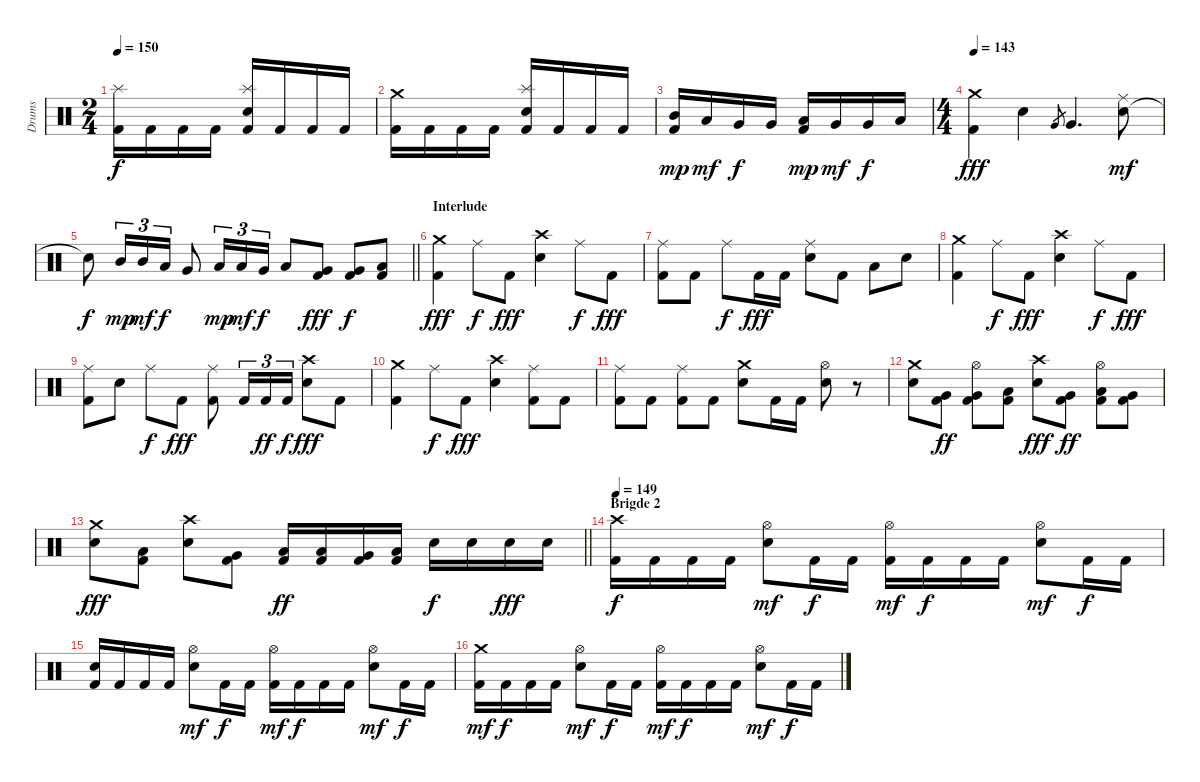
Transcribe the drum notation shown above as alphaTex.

\track ("Drums" "Drums") {instrument percussion}
\staff
\articulation defaults
\ts (2 4)
\tempo 150
\clef neutral
\ks c
("Kick (hit) 2" "Splash (hit)").16{dy f} "Kick (hit) 2".16 "Kick (hit) 2".16 "Kick (hit) 2".16 ("Kick (hit) 2" "Electric Snare (hit)" "Splash (hit)").16 "Kick (hit) 2".16 "Kick (hit) 2".16 "Kick (hit) 2".16 |
("Kick (hit) 2" "Crash medium (hit)").16 "Kick (hit) 2".16 "Kick (hit) 2".16 "Kick (hit) 2".16 ("Kick (hit) 2" "Electric Snare (hit)" "Splash (hit)").16 "Kick (hit) 2".16 "Kick (hit) 2".16 "Kick (hit) 2".16 |
("Kick (hit) 2" "Mid Tom (hit)").16{dy mp} "Low Tom (hit)".16{dy mf} "Very Low Tom (hit)".16{dy f} "Very Low Tom (hit)".16 ("Kick (hit) 2" "Low Tom (hit)").16{dy mp} "Very Low Tom (hit)".16{dy mf} "Very Low Tom (hit)".16{dy f} "Low Floor Tom (hit)".16 |
\ts (4 4)
\tempo 143
("Kick (hit) 2" "Crash medium (hit)").4{dy fff} "Electric Snare (hit)".4 "Very Low Tom (hit)".8{gr} "Very Low Tom (hit)".4{d} ("Electric Snare (hit)" "Ride (middle)").8{dy mf} |
\barLineRight lightlight "Snare (hit)"{t}.8{dy f} "Mid Tom (hit)".16{tu (3 2) dy mp} "Mid Tom (hit)".16{tu (3 2) dy mf} "Low Tom (hit)".16{tu (3 2) dy f} "Very Low Tom (hit)".8 "Low Tom (hit)".16{tu (3 2) dy mp} "Low Tom (hit)".16{tu (3 2) dy mf} "Very Low Tom (hit)".16{tu (3 2) dy f} "Low Floor Tom (hit)".8
("Kick (hit) 2" "Very Low Tom (hit)").8{dy fff} ("Kick (hit) 2" "Very Low Tom (hit)").8{dy f} ("Kick (hit) 2" "Low Floor Tom (hit)").8 |
\section ("" "Interlude")
("Kick (hit) 2" "Crash medium (hit)").4{dy fff} "Ride (middle)".8{dy f} "Kick (hit) 2".8{dy fff} ("Electric Snare (hit)" "Crash high (hit)").4 "Ride (middle)".8{dy f} "Kick (hit) 2".8{dy fff} |
("Kick (hit) 2" "Ride (middle)").8 "Kick (hit) 2".8 "Ride (middle)".8{dy f} "Kick (hit) 2".16{dy fff} "Kick (hit) 2".16 ("Electric Snare (hit)" "Ride (middle)").8 "Kick (hit) 2".8 "Low Floor Tom (hit)".8 "Electric Snare (hit)".8 |
("Kick (hit) 2" "Crash medium (hit)").4 "Ride (middle)".8{dy f} "Kick (hit) 2".8{dy fff} ("Electric Snare (hit)" "Crash high (hit)").4 "Ride (middle)".8{dy f} "Kick (hit) 2".8{dy fff} |
("Kick (hit) 2" "Ride (middle)").8 "Electric Snare (hit)".8 "Ride (middle)".8{dy f} "Kick (hit) 2".8{dy fff} ("Kick (hit) 2" "Ride (middle)").8 "Kick (hit) 2".16{tu (3 2)} "Kick (hit) 2".16{tu (3 2) dy ff} "Kick (hit) 2".16{tu (3 2) dy f} ("Electric Snare (hit)" "Crash high (hit)").8{dy fff} "Kick (hit) 2".8 |
("Kick (hit) 2" "Crash medium (hit)").4 "Ride (middle)".8{dy f} "Kick (hit) 2".8{dy fff} ("Electric Snare (hit)" "Crash high (hit)").4 ("Kick (hit) 2" "Ride (middle)").8 "Kick (hit) 2".8 |
("Kick (hit) 2" "Ride (middle)").8 "Kick (hit) 2".8 ("Kick (hit) 2" "Ride (middle)").8 "Kick (hit) 2".8 ("Electric Snare (hit)" "Crash medium (hit)").8 "Kick (hit) 2".16 "Kick (hit) 2".16 ("Electric Snare (hit)" "Hi-Hat (open)").8 r.8 |
("Electric Snare (hit)" "Crash medium (hit)").8 ("Kick (hit) 2" "Very Low Tom (hit)").8{dy ff} ("Kick (hit) 2" "Very Low Tom (hit)" "Hi-Hat (open)").8 ("Kick (hit) 2" "Low Floor Tom (hit)").8 ("Electric Snare (hit)" "Crash high (hit)").8{dy fff} ("Kick (hit) 2" "Very Low Tom (hit)").8{dy ff} ("Kick (hit) 2" "Low Tom (hit)" "Hi-Hat (open)").8 ("Kick (hit) 2" "Very Low Tom (hit)").8 |
\barLineRight lightlight
("Electric Snare (hit)" "Crash medium (hit)").8{dy fff} ("Kick (hit) 2" "Low Tom (hit)").8 ("Electric Snare (hit)" "Crash high (hit)").8 ("Kick (hit) 2" "Very Low Tom (hit)").8 ("Kick (hit) 2" "Low Tom (hit)").16{dy ff} ("Kick (hit) 2" "Low Tom (hit)").16 ("Kick (hit) 2" "Very Low Tom (hit)").16 ("Kick (hit) 2" "Low Floor Tom (hit)").16 "Electric Snare (hit)".16{dy f} "Electric Snare (hit)".16 "Electric Snare (hit)".16{dy fff} "Electric Snare (hit)".16 |
\section ("" "Brigde 2")
\tempo 149
("Kick (hit) 2" "Crash high (hit)").16{dy f} "Kick (hit) 2".16 "Kick (hit) 2".16 "Kick (hit) 2".16 ("Electric Snare (hit)" "Hi-Hat (open)").8{dy mf} "Kick (hit) 2".16{dy f} "Kick (hit) 2".16 ("Kick (hit) 2" "Hi-Hat (open)").16{dy mf} "Kick (hit) 2".16{dy f} "Kick (hit) 2".16 "Kick (hit) 2".16 ("Electric Snare (hit)" "Hi-Hat (open)").8{dy mf} "Kick (hit) 2".16{dy f} "Kick (hit) 2".16 |
("Kick (hit) 2" "Snare (hit)").16 "Kick (hit) 2".16 "Kick (hit) 2".16 "Kick (hit) 2".16 ("Electric Snare (hit)" "Hi-Hat (open)").8{dy mf} "Kick (hit) 2".16{dy f} "Kick (hit) 2".16 ("Kick (hit) 2" "Hi-Hat (open)").16{dy mf} "Kick (hit) 2".16{dy f} "Kick (hit) 2".16 "Kick (hit) 2".16 ("Electric Snare (hit)" "Hi-Hat (open)").8{dy mf} "Kick (hit) 2".16{dy f} "Kick (hit) 2".16 |
("Kick (hit) 2" "Crash medium (hit)").16{dy mf} "Kick (hit) 2".16{dy f} "Kick (hit) 2".16 "Kick (hit) 2".16 ("Electric Snare (hit)" "Hi-Hat (open)").8{dy mf} "Kick (hit) 2".16{dy f} "Kick (hit) 2".16 ("Kick (hit) 2" "Hi-Hat (open)").16{dy mf} "Kick (hit) 2".16{dy f} "Kick (hit) 2".16 "Kick (hit) 2".16 ("Electric Snare (hit)" "Hi-Hat (open)").8{dy mf} "Kick (hit) 2".16{dy f} "Kick (hit) 2".16
